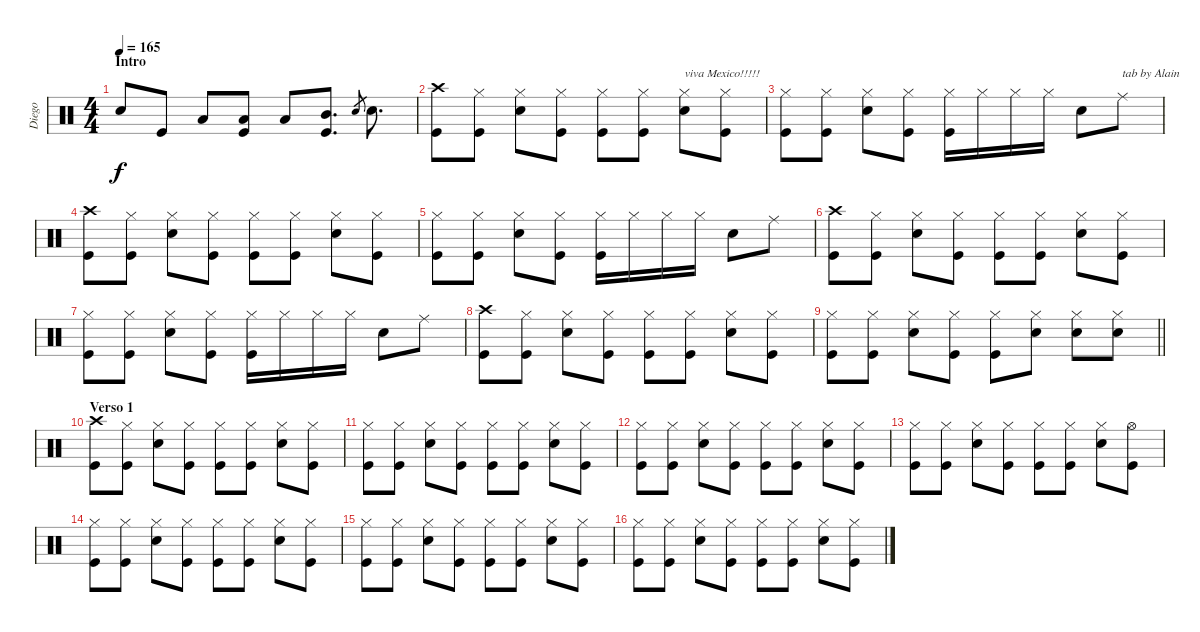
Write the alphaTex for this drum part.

\track ("Diego" "Diego") {instrument percussion}
\staff {score}
\articulation defaults
\ts (4 4)
\section ("" "Intro")
\tempo 165
\clef neutral
\ks c "Snare (hit) 2".8{dy f} "Kick (hit)".8 "Low Tom (hit)".8
("Low Tom (hit)" "Kick (hit)").8 "Low Tom (hit)".8 ("Mid Tom (hit)" "Kick (hit)").8{d} "Snare (hit) 2".8{gr} "Snare (hit) 2".8{d} |
("Crash high (hit)" "Kick (hit)").8 ("Hi-Hat (closed)" "Kick (hit)").8 ("Hi-Hat (closed)" "Snare (hit) 2").8 ("Hi-Hat (closed)" "Kick (hit)").8 ("Hi-Hat (closed)" "Kick (hit)").8 ("Hi-Hat (closed)" "Kick (hit)").8 ("Hi-Hat (closed)" "Snare (hit) 2").8{txt "viva Mexico!!!!!"} ("Hi-Hat (closed)" "Kick (hit)").8 |
("Hi-Hat (closed)" "Kick (hit)").8 ("Hi-Hat (closed)" "Kick (hit)").8 ("Hi-Hat (closed)" "Snare (hit) 2").8 ("Hi-Hat (closed)" "Kick (hit)").8 ("Hi-Hat (closed)" "Kick (hit)").16 "Hi-Hat (closed)".16 "Hi-Hat (closed)".16 "Hi-Hat (closed)".16 "Snare (hit) 2".8 "Ride (middle)".8{txt "tab by Alain"} |
("Crash high (hit)" "Kick (hit)").8 ("Hi-Hat (closed)" "Kick (hit)").8 ("Hi-Hat (closed)" "Snare (hit) 2").8 ("Hi-Hat (closed)" "Kick (hit)").8 ("Hi-Hat (closed)" "Kick (hit)").8 ("Hi-Hat (closed)" "Kick (hit)").8 ("Hi-Hat (closed)" "Snare (hit) 2").8 ("Hi-Hat (closed)" "Kick (hit)").8 |
("Hi-Hat (closed)" "Kick (hit)").8 ("Hi-Hat (closed)" "Kick (hit)").8 ("Hi-Hat (closed)" "Snare (hit) 2").8 ("Hi-Hat (closed)" "Kick (hit)").8 ("Hi-Hat (closed)" "Kick (hit)").16 "Hi-Hat (closed)".16 "Hi-Hat (closed)".16 "Hi-Hat (closed)".16 "Snare (hit) 2".8 "Ride (middle)".8 |
("Crash high (hit)" "Kick (hit)").8 ("Hi-Hat (closed)" "Kick (hit)").8 ("Hi-Hat (closed)" "Snare (hit) 2").8 ("Hi-Hat (closed)" "Kick (hit)").8 ("Hi-Hat (closed)" "Kick (hit)").8 ("Hi-Hat (closed)" "Kick (hit)").8 ("Hi-Hat (closed)" "Snare (hit) 2").8 ("Hi-Hat (closed)" "Kick (hit)").8 |
("Hi-Hat (closed)" "Kick (hit)").8 ("Hi-Hat (closed)" "Kick (hit)").8 ("Hi-Hat (closed)" "Snare (hit) 2").8 ("Hi-Hat (closed)" "Kick (hit)").8 ("Hi-Hat (closed)" "Kick (hit)").16 "Hi-Hat (closed)".16 "Hi-Hat (closed)".16 "Hi-Hat (closed)".16 "Snare (hit) 2".8 "Ride (middle)".8 |
("Crash high (hit)" "Kick (hit)").8 ("Hi-Hat (closed)" "Kick (hit)").8 ("Hi-Hat (closed)" "Snare (hit) 2").8 ("Hi-Hat (closed)" "Kick (hit)").8 ("Hi-Hat (closed)" "Kick (hit)").8 ("Hi-Hat (closed)" "Kick (hit)").8 ("Hi-Hat (closed)" "Snare (hit) 2").8 ("Hi-Hat (closed)" "Kick (hit)").8 |
\barLineRight lightlight
("Hi-Hat (closed)" "Kick (hit)").8 ("Hi-Hat (closed)" "Kick (hit)").8 ("Hi-Hat (closed)" "Snare (hit) 2").8 ("Hi-Hat (closed)" "Kick (hit)").8 ("Hi-Hat (closed)" "Kick (hit)").8 ("Hi-Hat (closed)" "Snare (hit) 2").8 ("Hi-Hat (closed)" "Snare (hit) 2").8 ("Hi-Hat (closed)" "Snare (hit) 2").8 |
\section ("" "Verso 1")
("Crash high (hit)" "Kick (hit)").8 ("Hi-Hat (closed)" "Kick (hit)").8 ("Hi-Hat (closed)" "Snare (hit) 2").8 ("Hi-Hat (closed)" "Kick (hit)").8 ("Hi-Hat (closed)" "Kick (hit)").8 ("Hi-Hat (closed)" "Kick (hit)").8 ("Hi-Hat (closed)" "Snare (hit) 2").8 ("Hi-Hat (closed)" "Kick (hit)").8 |
("Hi-Hat (closed)" "Kick (hit)").8 ("Hi-Hat (closed)" "Kick (hit)").8 ("Hi-Hat (closed)" "Snare (hit) 2").8 ("Hi-Hat (closed)" "Kick (hit)").8 ("Hi-Hat (closed)" "Kick (hit)").8 ("Hi-Hat (closed)" "Kick (hit)").8 ("Hi-Hat (closed)" "Snare (hit) 2").8 ("Hi-Hat (closed)" "Kick (hit)").8 |
("Hi-Hat (closed)" "Kick (hit)").8 ("Hi-Hat (closed)" "Kick (hit)").8 ("Hi-Hat (closed)" "Snare (hit) 2").8 ("Hi-Hat (closed)" "Kick (hit)").8 ("Hi-Hat (closed)" "Kick (hit)").8 ("Hi-Hat (closed)" "Kick (hit)").8 ("Hi-Hat (closed)" "Snare (hit) 2").8 ("Hi-Hat (closed)" "Kick (hit)").8 |
("Hi-Hat (closed)" "Kick (hit)").8 ("Hi-Hat (closed)" "Kick (hit)").8 ("Hi-Hat (closed)" "Snare (hit) 2").8 ("Hi-Hat (closed)" "Kick (hit)").8 ("Hi-Hat (closed)" "Kick (hit)").8 ("Hi-Hat (closed)" "Kick (hit)").8 ("Hi-Hat (closed)" "Snare (hit) 2").8 ("Hi-Hat (open)" "Kick (hit)").8 |
("Hi-Hat (closed)" "Kick (hit)").8 ("Hi-Hat (closed)" "Kick (hit)").8 ("Hi-Hat (closed)" "Snare (hit) 2").8 ("Hi-Hat (closed)" "Kick (hit)").8 ("Hi-Hat (closed)" "Kick (hit)").8 ("Hi-Hat (closed)" "Kick (hit)").8 ("Hi-Hat (closed)" "Snare (hit) 2").8 ("Hi-Hat (closed)" "Kick (hit)").8 |
("Hi-Hat (closed)" "Kick (hit)").8 ("Hi-Hat (closed)" "Kick (hit)").8 ("Hi-Hat (closed)" "Snare (hit) 2").8 ("Hi-Hat (closed)" "Kick (hit)").8 ("Hi-Hat (closed)" "Kick (hit)").8 ("Hi-Hat (closed)" "Kick (hit)").8 ("Hi-Hat (closed)" "Snare (hit) 2").8 ("Hi-Hat (closed)" "Kick (hit)").8 |
("Hi-Hat (closed)" "Kick (hit)").8 ("Hi-Hat (closed)" "Kick (hit)").8 ("Hi-Hat (closed)" "Snare (hit) 2").8 ("Hi-Hat (closed)" "Kick (hit)").8 ("Hi-Hat (closed)" "Kick (hit)").8 ("Hi-Hat (closed)" "Kick (hit)").8 ("Hi-Hat (closed)" "Snare (hit) 2").8 ("Hi-Hat (closed)" "Kick (hit)").8
